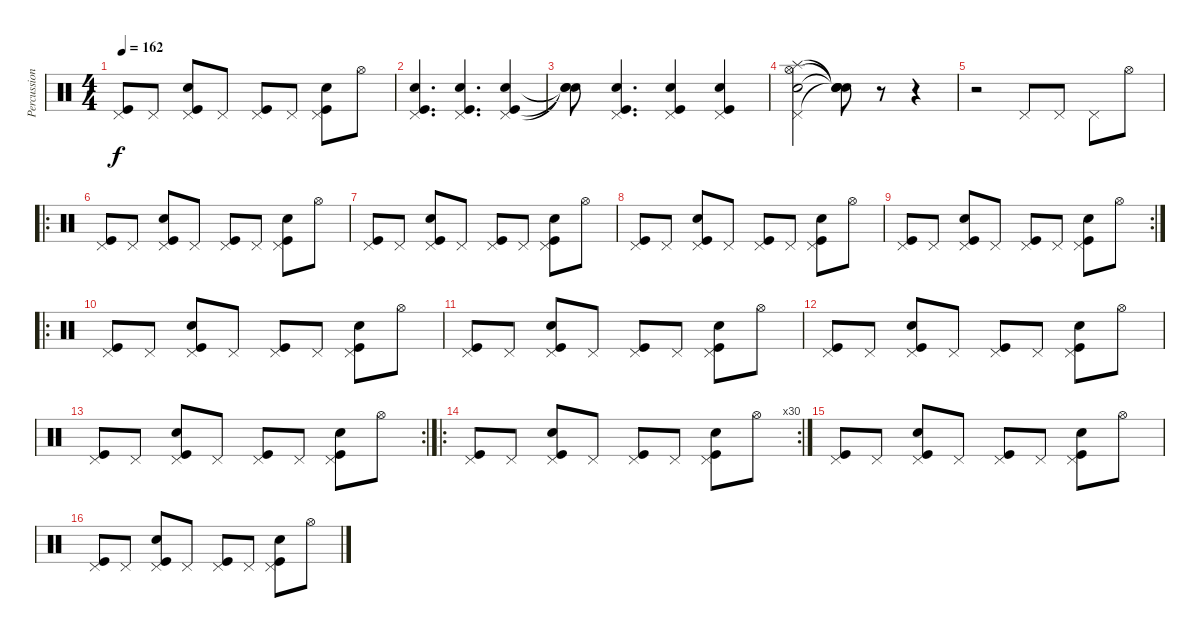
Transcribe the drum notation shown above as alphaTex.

\track ("Percussion" "Percussion") {instrument percussion}
\staff {score}
\articulation defaults
\ts (4 4)
\tempo 162
\clef neutral
\ks c
("Pedal Hi-Hat (hit)" "Kick (hit)").8{dy f} "Pedal Hi-Hat (hit)".8 ("Pedal Hi-Hat (hit)" "Snare (hit) 2" "Kick (hit)").8 "Pedal Hi-Hat (hit)".8 ("Pedal Hi-Hat (hit)" "Kick (hit)").8 "Pedal Hi-Hat (hit)".8 ("Pedal Hi-Hat (hit)" "Snare (hit) 2" "Kick (hit)").8 "Hi-Hat (open)".8 |
("Pedal Hi-Hat (hit)" "Snare (hit) 2" "Kick (hit)").4{d} ("Pedal Hi-Hat (hit)" "Snare (hit) 2" "Kick (hit)").4{d} ("Pedal Hi-Hat (hit)" "Snare (hit) 2" "Kick (hit)").4 |
("Snare (hit)"{t} "Snare (hit)"{t} "Snare (hit)"{t}).8 ("Pedal Hi-Hat (hit)" "Snare (hit) 2" "Kick (hit)").4{d} ("Pedal Hi-Hat (hit)" "Snare (hit) 2" "Kick (hit)").4 ("Pedal Hi-Hat (hit)" "Snare (hit) 2" "Kick (hit)").4 |
("Pedal Hi-Hat (hit)" "Snare (hit) 2" "Hi-Hat (open)" "Splash (hit)").2 ("Snare (hit)"{t} "Snare (hit)"{t} "Snare (hit)"{t} "Snare (hit)"{t}).8 r.8 r.4 |
r.2 "Pedal Hi-Hat (hit)".8 "Pedal Hi-Hat (hit)".8 "Pedal Hi-Hat (hit)".8 "Hi-Hat (open)".8 |
\ro
("Pedal Hi-Hat (hit)" "Kick (hit)").8 "Pedal Hi-Hat (hit)".8 ("Pedal Hi-Hat (hit)" "Snare (hit) 2" "Kick (hit)").8 "Pedal Hi-Hat (hit)".8 ("Pedal Hi-Hat (hit)" "Kick (hit)").8 "Pedal Hi-Hat (hit)".8 ("Pedal Hi-Hat (hit)" "Snare (hit) 2" "Kick (hit)").8 "Hi-Hat (open)".8 |
("Pedal Hi-Hat (hit)" "Kick (hit)").8 "Pedal Hi-Hat (hit)".8 ("Pedal Hi-Hat (hit)" "Snare (hit) 2" "Kick (hit)").8 "Pedal Hi-Hat (hit)".8 ("Pedal Hi-Hat (hit)" "Kick (hit)").8 "Pedal Hi-Hat (hit)".8 ("Pedal Hi-Hat (hit)" "Snare (hit) 2" "Kick (hit)").8 "Hi-Hat (open)".8 |
("Pedal Hi-Hat (hit)" "Kick (hit)").8 "Pedal Hi-Hat (hit)".8 ("Pedal Hi-Hat (hit)" "Snare (hit) 2" "Kick (hit)").8 "Pedal Hi-Hat (hit)".8 ("Pedal Hi-Hat (hit)" "Kick (hit)").8 "Pedal Hi-Hat (hit)".8 ("Pedal Hi-Hat (hit)" "Snare (hit) 2" "Kick (hit)").8 "Hi-Hat (open)".8 |
\rc 2
("Pedal Hi-Hat (hit)" "Kick (hit)").8 "Pedal Hi-Hat (hit)".8 ("Pedal Hi-Hat (hit)" "Snare (hit) 2" "Kick (hit)").8 "Pedal Hi-Hat (hit)".8 ("Pedal Hi-Hat (hit)" "Kick (hit)").8 "Pedal Hi-Hat (hit)".8 ("Pedal Hi-Hat (hit)" "Snare (hit) 2" "Kick (hit)").8 "Hi-Hat (open)".8 |
\ro
("Pedal Hi-Hat (hit)" "Kick (hit)").8 "Pedal Hi-Hat (hit)".8 ("Pedal Hi-Hat (hit)" "Snare (hit) 2" "Kick (hit)").8 "Pedal Hi-Hat (hit)".8 ("Pedal Hi-Hat (hit)" "Kick (hit)").8 "Pedal Hi-Hat (hit)".8 ("Pedal Hi-Hat (hit)" "Snare (hit) 2" "Kick (hit)").8 "Hi-Hat (open)".8 |
("Pedal Hi-Hat (hit)" "Kick (hit)").8 "Pedal Hi-Hat (hit)".8 ("Pedal Hi-Hat (hit)" "Snare (hit) 2" "Kick (hit)").8 "Pedal Hi-Hat (hit)".8 ("Pedal Hi-Hat (hit)" "Kick (hit)").8 "Pedal Hi-Hat (hit)".8 ("Pedal Hi-Hat (hit)" "Snare (hit) 2" "Kick (hit)").8 "Hi-Hat (open)".8 |
("Pedal Hi-Hat (hit)" "Kick (hit)").8 "Pedal Hi-Hat (hit)".8 ("Pedal Hi-Hat (hit)" "Snare (hit) 2" "Kick (hit)").8 "Pedal Hi-Hat (hit)".8 ("Pedal Hi-Hat (hit)" "Kick (hit)").8 "Pedal Hi-Hat (hit)".8 ("Pedal Hi-Hat (hit)" "Snare (hit) 2" "Kick (hit)").8 "Hi-Hat (open)".8 |
\rc 2
("Pedal Hi-Hat (hit)" "Kick (hit)").8 "Pedal Hi-Hat (hit)".8 ("Pedal Hi-Hat (hit)" "Snare (hit) 2" "Kick (hit)").8 "Pedal Hi-Hat (hit)".8 ("Pedal Hi-Hat (hit)" "Kick (hit)").8 "Pedal Hi-Hat (hit)".8 ("Pedal Hi-Hat (hit)" "Snare (hit) 2" "Kick (hit)").8 "Hi-Hat (open)".8 |
\ro
\rc 30
("Pedal Hi-Hat (hit)" "Kick (hit)").8 "Pedal Hi-Hat (hit)".8 ("Pedal Hi-Hat (hit)" "Snare (hit) 2" "Kick (hit)").8 "Pedal Hi-Hat (hit)".8 ("Pedal Hi-Hat (hit)" "Kick (hit)").8 "Pedal Hi-Hat (hit)".8 ("Pedal Hi-Hat (hit)" "Snare (hit) 2" "Kick (hit)").8 "Hi-Hat (open)".8 |
("Pedal Hi-Hat (hit)" "Kick (hit)").8 "Pedal Hi-Hat (hit)".8 ("Pedal Hi-Hat (hit)" "Snare (hit) 2" "Kick (hit)").8 "Pedal Hi-Hat (hit)".8 ("Pedal Hi-Hat (hit)" "Kick (hit)").8 "Pedal Hi-Hat (hit)".8 ("Pedal Hi-Hat (hit)" "Snare (hit) 2" "Kick (hit)").8 "Hi-Hat (open)".8 |
("Pedal Hi-Hat (hit)" "Kick (hit)").8 "Pedal Hi-Hat (hit)".8 ("Pedal Hi-Hat (hit)" "Snare (hit) 2" "Kick (hit)").8 "Pedal Hi-Hat (hit)".8 ("Pedal Hi-Hat (hit)" "Kick (hit)").8 "Pedal Hi-Hat (hit)".8 ("Pedal Hi-Hat (hit)" "Snare (hit) 2" "Kick (hit)").8 "Hi-Hat (open)".8
